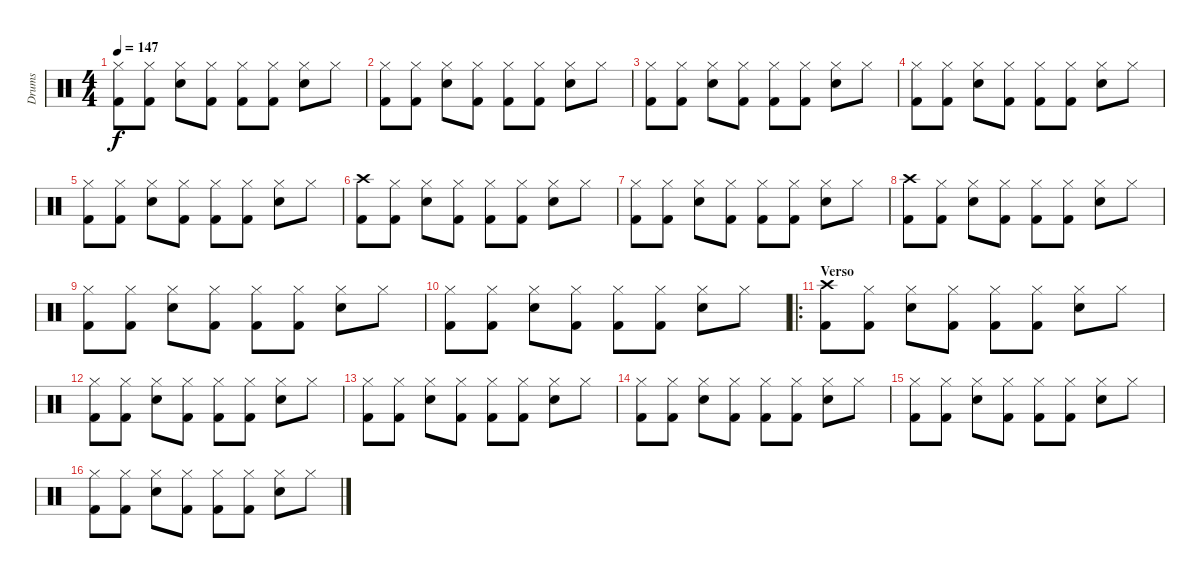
\track ("Drums" "Drums") {instrument percussion}
\staff {score}
\articulation defaults
\ts (4 4)
\tempo 147
\clef neutral
\ks c
("Hi-Hat (closed)" "Kick (hit) 2").8{dy f} ("Hi-Hat (closed)" "Kick (hit) 2").8 ("Hi-Hat (closed)" "Snare (hit) 2").8 ("Hi-Hat (closed)" "Kick (hit) 2").8 ("Hi-Hat (closed)" "Kick (hit) 2").8 ("Hi-Hat (closed)" "Kick (hit) 2").8 ("Hi-Hat (closed)" "Snare (hit) 2").8 "Hi-Hat (closed)".8 |
("Hi-Hat (closed)" "Kick (hit) 2").8 ("Hi-Hat (closed)" "Kick (hit) 2").8 ("Hi-Hat (closed)" "Snare (hit) 2").8 ("Hi-Hat (closed)" "Kick (hit) 2").8 ("Hi-Hat (closed)" "Kick (hit) 2").8 ("Hi-Hat (closed)" "Kick (hit) 2").8 ("Hi-Hat (closed)" "Snare (hit) 2").8 "Hi-Hat (closed)".8 |
("Hi-Hat (closed)" "Kick (hit) 2").8 ("Hi-Hat (closed)" "Kick (hit) 2").8 ("Hi-Hat (closed)" "Snare (hit) 2").8 ("Hi-Hat (closed)" "Kick (hit) 2").8 ("Hi-Hat (closed)" "Kick (hit) 2").8 ("Hi-Hat (closed)" "Kick (hit) 2").8 ("Hi-Hat (closed)" "Snare (hit) 2").8 "Hi-Hat (closed)".8 |
("Hi-Hat (closed)" "Kick (hit) 2").8 ("Hi-Hat (closed)" "Kick (hit) 2").8 ("Hi-Hat (closed)" "Snare (hit) 2").8 ("Hi-Hat (closed)" "Kick (hit) 2").8 ("Hi-Hat (closed)" "Kick (hit) 2").8 ("Hi-Hat (closed)" "Kick (hit) 2").8 ("Hi-Hat (closed)" "Snare (hit) 2").8 "Hi-Hat (closed)".8 |
("Hi-Hat (closed)" "Kick (hit) 2").8 ("Hi-Hat (closed)" "Kick (hit) 2").8 ("Hi-Hat (closed)" "Snare (hit) 2").8 ("Hi-Hat (closed)" "Kick (hit) 2").8 ("Hi-Hat (closed)" "Kick (hit) 2").8 ("Hi-Hat (closed)" "Kick (hit) 2").8 ("Hi-Hat (closed)" "Snare (hit) 2").8 "Hi-Hat (closed)".8 |
("Crash high (hit)" "Kick (hit) 2").8 ("Hi-Hat (closed)" "Kick (hit) 2").8 ("Hi-Hat (closed)" "Snare (hit) 2").8 ("Hi-Hat (closed)" "Kick (hit) 2").8 ("Hi-Hat (closed)" "Kick (hit) 2").8 ("Hi-Hat (closed)" "Kick (hit) 2").8 ("Hi-Hat (closed)" "Snare (hit) 2").8 "Hi-Hat (closed)".8 |
("Hi-Hat (closed)" "Kick (hit) 2").8 ("Hi-Hat (closed)" "Kick (hit) 2").8 ("Hi-Hat (closed)" "Snare (hit) 2").8 ("Hi-Hat (closed)" "Kick (hit) 2").8 ("Hi-Hat (closed)" "Kick (hit) 2").8 ("Hi-Hat (closed)" "Kick (hit) 2").8 ("Hi-Hat (closed)" "Snare (hit) 2").8 "Hi-Hat (closed)".8 |
("Crash high (hit)" "Kick (hit) 2").8 ("Hi-Hat (closed)" "Kick (hit) 2").8 ("Hi-Hat (closed)" "Snare (hit) 2").8 ("Hi-Hat (closed)" "Kick (hit) 2").8 ("Hi-Hat (closed)" "Kick (hit) 2").8 ("Hi-Hat (closed)" "Kick (hit) 2").8 ("Hi-Hat (closed)" "Snare (hit) 2").8 "Hi-Hat (closed)".8 |
("Hi-Hat (closed)" "Kick (hit) 2").8 ("Hi-Hat (closed)" "Kick (hit) 2").8 ("Hi-Hat (closed)" "Snare (hit) 2").8 ("Hi-Hat (closed)" "Kick (hit) 2").8 ("Hi-Hat (closed)" "Kick (hit) 2").8 ("Hi-Hat (closed)" "Kick (hit) 2").8 ("Hi-Hat (closed)" "Snare (hit) 2").8 "Hi-Hat (closed)".8 |
("Hi-Hat (closed)" "Kick (hit) 2").8 ("Hi-Hat (closed)" "Kick (hit) 2").8 ("Hi-Hat (closed)" "Snare (hit) 2").8 ("Hi-Hat (closed)" "Kick (hit) 2").8 ("Hi-Hat (closed)" "Kick (hit) 2").8 ("Hi-Hat (closed)" "Kick (hit) 2").8 ("Hi-Hat (closed)" "Snare (hit) 2").8 "Hi-Hat (closed)".8 |
\ro
\section ("" "Verso")
("Crash high (hit)" "Kick (hit) 2").8 ("Hi-Hat (closed)" "Kick (hit) 2").8 ("Hi-Hat (closed)" "Snare (hit) 2").8 ("Hi-Hat (closed)" "Kick (hit) 2").8 ("Hi-Hat (closed)" "Kick (hit) 2").8 ("Hi-Hat (closed)" "Kick (hit) 2").8 ("Hi-Hat (closed)" "Snare (hit) 2").8 "Hi-Hat (closed)".8 |
("Hi-Hat (closed)" "Kick (hit) 2").8 ("Hi-Hat (closed)" "Kick (hit) 2").8 ("Hi-Hat (closed)" "Snare (hit) 2").8 ("Hi-Hat (closed)" "Kick (hit) 2").8 ("Hi-Hat (closed)" "Kick (hit) 2").8 ("Hi-Hat (closed)" "Kick (hit) 2").8 ("Hi-Hat (closed)" "Snare (hit) 2").8 "Hi-Hat (closed)".8 |
("Hi-Hat (closed)" "Kick (hit) 2").8 ("Hi-Hat (closed)" "Kick (hit) 2").8 ("Hi-Hat (closed)" "Snare (hit) 2").8 ("Hi-Hat (closed)" "Kick (hit) 2").8 ("Hi-Hat (closed)" "Kick (hit) 2").8 ("Hi-Hat (closed)" "Kick (hit) 2").8 ("Hi-Hat (closed)" "Snare (hit) 2").8 "Hi-Hat (closed)".8 |
("Hi-Hat (closed)" "Kick (hit) 2").8 ("Hi-Hat (closed)" "Kick (hit) 2").8 ("Hi-Hat (closed)" "Snare (hit) 2").8 ("Hi-Hat (closed)" "Kick (hit) 2").8 ("Hi-Hat (closed)" "Kick (hit) 2").8 ("Hi-Hat (closed)" "Kick (hit) 2").8 ("Hi-Hat (closed)" "Snare (hit) 2").8 "Hi-Hat (closed)".8 |
("Hi-Hat (closed)" "Kick (hit) 2").8 ("Hi-Hat (closed)" "Kick (hit) 2").8 ("Hi-Hat (closed)" "Snare (hit) 2").8 ("Hi-Hat (closed)" "Kick (hit) 2").8 ("Hi-Hat (closed)" "Kick (hit) 2").8 ("Hi-Hat (closed)" "Kick (hit) 2").8 ("Hi-Hat (closed)" "Snare (hit) 2").8 "Hi-Hat (closed)".8 |
("Hi-Hat (closed)" "Kick (hit) 2").8 ("Hi-Hat (closed)" "Kick (hit) 2").8 ("Hi-Hat (closed)" "Snare (hit) 2").8 ("Hi-Hat (closed)" "Kick (hit) 2").8 ("Hi-Hat (closed)" "Kick (hit) 2").8 ("Hi-Hat (closed)" "Kick (hit) 2").8 ("Hi-Hat (closed)" "Snare (hit) 2").8 "Hi-Hat (closed)".8
